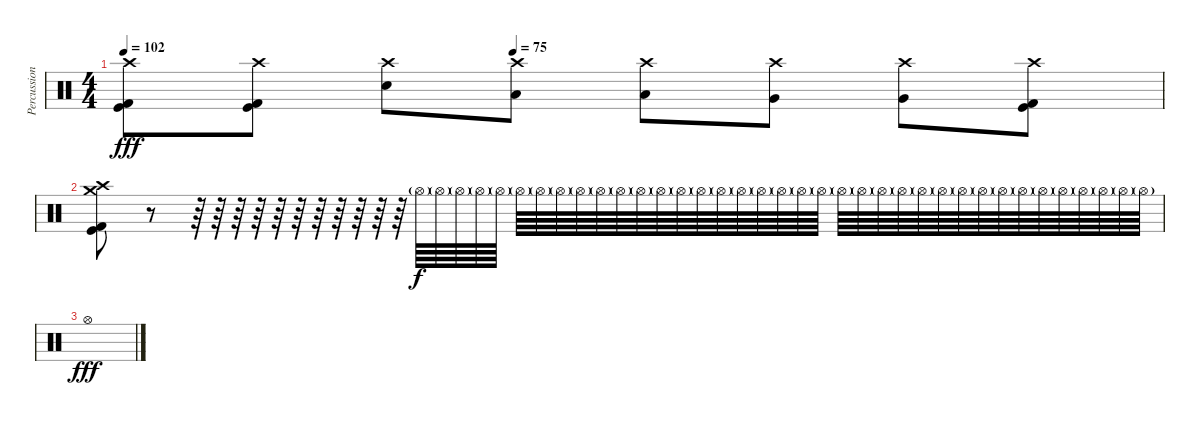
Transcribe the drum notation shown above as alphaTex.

\track ("Percussion" "Percussion") {instrument percussion}
\staff {score}
\articulation defaults
\ts (4 4)
\tempo 102
\tempo (75 0.375)
\clef neutral
\ks c
("Crash high (hit)" "Kick (hit)" "Kick (hit) 2").8{dy fff} ("Crash high (hit)" "Kick (hit)" "Kick (hit) 2").8 ("Crash high (hit)" "Electric Snare (hit)").8 ("Crash high (hit)" "Low Tom (hit)").8 ("Crash high (hit)" "Low Tom (hit)").8 ("Crash high (hit)" "Very Low Tom (hit)").8 ("Crash high (hit)" "Very Low Tom (hit)").8 ("Crash high (hit)" "Kick (hit)" "Kick (hit) 2").8 |
("Crash medium (hit)" "Crash high (hit)" "Kick (hit)" "Kick (hit) 2").8 r.8 r.64 r.64 r.64 r.64 r.64 r.64 r.64 r.64 r.64 r.64 r.64{volume 0} "Hi-Hat (open)"{g}.64{dy f volume 16} "Hi-Hat (open)"{g}.64 "Hi-Hat (open)"{g}.64 "Hi-Hat (open)"{g}.64 "Hi-Hat (open)"{g}.64 "Hi-Hat (open)"{g}.64 "Hi-Hat (open)"{g}.64 "Hi-Hat (open)"{g}.64 "Hi-Hat (open)"{g}.64 "Hi-Hat (open)"{g}.64 "Hi-Hat (open)"{g}.64 "Hi-Hat (open)"{g}.64 "Hi-Hat (open)"{g}.64 "Hi-Hat (open)"{g}.64 "Hi-Hat (open)"{g}.64 "Hi-Hat (open)"{g}.64 "Hi-Hat (open)"{g}.64 "Hi-Hat (open)"{g}.64 "Hi-Hat (open)"{g}.64 "Hi-Hat (open)"{g}.64 "Hi-Hat (open)"{g}.64 "Hi-Hat (open)"{g}.64 "Hi-Hat (open)"{g}.64 "Hi-Hat (open)"{g}.64 "Hi-Hat (open)"{g}.64 "Hi-Hat (open)"{g}.64 "Hi-Hat (open)"{g}.64 "Hi-Hat (open)"{g}.64 "Hi-Hat (open)"{g}.64 "Hi-Hat (open)"{g}.64 "Hi-Hat (open)"{g}.64 "Hi-Hat (open)"{g}.64 "Hi-Hat (open)"{g}.64 "Hi-Hat (open)"{g}.64 "Hi-Hat (open)"{g}.64 "Hi-Hat (open)"{g}.64 "Hi-Hat (open)"{g}.64 |
"Hi-Hat (open)".1{dy fff}
